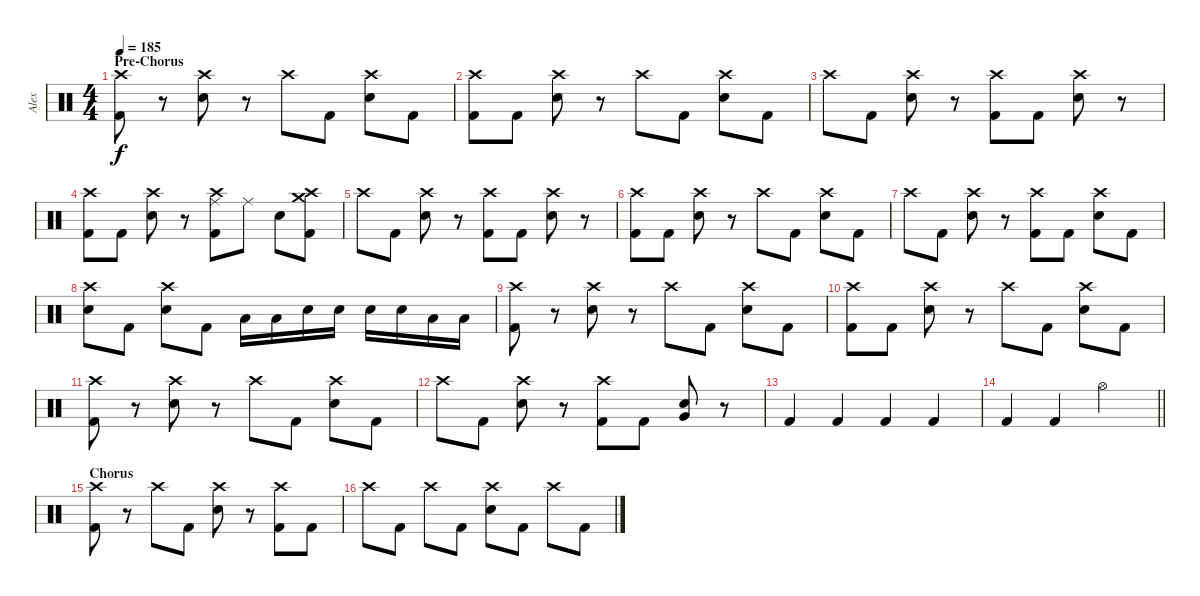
\track ("Alex" "Alex") {instrument percussion}
\staff {score}
\articulation defaults
\ts (4 4)
\section ("" "Pre-Chorus")
\tempo 185
\clef neutral
\ks c
("Crash high (hit)" "Kick (hit) 2").8{dy f} r.8 ("Crash high (hit)" "Electric Snare (hit)").8 r.8 "Crash high (hit)".8 "Kick (hit) 2".8 ("Crash high (hit)" "Electric Snare (hit)").8 "Kick (hit) 2".8 |
("Crash high (hit)" "Kick (hit) 2").8 "Kick (hit) 2".8 ("Crash high (hit)" "Electric Snare (hit)").8 r.8 "Crash high (hit)".8 "Kick (hit) 2".8 ("Crash high (hit)" "Electric Snare (hit)").8 "Kick (hit) 2".8 |
"Crash high (hit)".8 "Kick (hit) 2".8 ("Crash high (hit)" "Electric Snare (hit)").8 r.8 ("Crash high (hit)" "Kick (hit) 2").8 "Kick (hit) 2".8 ("Crash high (hit)" "Electric Snare (hit)").8 r.8 |
("Crash high (hit)" "Kick (hit) 2").8 "Kick (hit) 2".8 ("Crash high (hit)" "Electric Snare (hit)").8 r.8 ("Crash high (hit)" "Ride (middle)" "Kick (hit) 2").8 "Ride (middle)".8 "Electric Snare (hit)".8 ("Crash medium (hit)" "Crash high (hit)" "Kick (hit) 2").8 |
"Crash high (hit)".8 "Kick (hit) 2".8 ("Crash high (hit)" "Electric Snare (hit)").8 r.8 ("Crash high (hit)" "Kick (hit) 2").8 "Kick (hit) 2".8 ("Crash high (hit)" "Electric Snare (hit)").8 r.8 |
("Crash high (hit)" "Kick (hit) 2").8 "Kick (hit) 2".8 ("Crash high (hit)" "Electric Snare (hit)").8 r.8 "Crash high (hit)".8 "Kick (hit) 2".8 ("Crash high (hit)" "Electric Snare (hit)").8 "Kick (hit) 2".8 |
"Crash high (hit)".8 "Kick (hit) 2".8 ("Crash high (hit)" "Electric Snare (hit)").8 r.8 ("Crash high (hit)" "Kick (hit) 2").8 "Kick (hit) 2".8 ("Crash high (hit)" "Electric Snare (hit)").8 "Kick (hit) 2".8 |
("Crash high (hit)" "Electric Snare (hit)").8 "Kick (hit) 2".8 ("Crash high (hit)" "Electric Snare (hit)").8 "Kick (hit) 2".8 "Low Tom (hit)".16 "Low Tom (hit)".16 "Electric Snare (hit)".16 "Electric Snare (hit)".16 "Electric Snare (hit)".16 "Electric Snare (hit)".16 "Low Tom (hit)".16 "Low Tom (hit)".16 |
("Crash high (hit)" "Kick (hit) 2").8 r.8 ("Crash high (hit)" "Electric Snare (hit)").8 r.8 "Crash high (hit)".8 "Kick (hit) 2".8 ("Crash high (hit)" "Electric Snare (hit)").8 "Kick (hit) 2".8 |
("Crash high (hit)" "Kick (hit) 2").8 "Kick (hit) 2".8 ("Crash high (hit)" "Electric Snare (hit)").8 r.8 "Crash high (hit)".8 "Kick (hit) 2".8 ("Crash high (hit)" "Electric Snare (hit)").8 "Kick (hit) 2".8 |
("Crash high (hit)" "Kick (hit) 2").8 r.8 ("Crash high (hit)" "Electric Snare (hit)").8 r.8 "Crash high (hit)".8 "Kick (hit) 2".8 ("Crash high (hit)" "Electric Snare (hit)").8 "Kick (hit) 2".8 |
"Crash high (hit)".8 "Kick (hit) 2".8 ("Crash high (hit)" "Electric Snare (hit)").8 r.8 ("Crash high (hit)" "Kick (hit) 2").8 "Kick (hit) 2".8 ("Very Low Tom (hit)" "Electric Snare (hit)").8 r.8 |
"Kick (hit) 2".4 "Kick (hit) 2".4 "Kick (hit) 2".4 "Kick (hit) 2".4 |
\barLineRight lightlight "Kick (hit) 2".4 "Kick (hit) 2".4 "Hi-Hat (open)".2
|
\section ("" "Chorus")
("Crash high (hit)" "Kick (hit) 2").8 r.8 "Crash high (hit)".8 "Kick (hit) 2".8 ("Crash high (hit)" "Electric Snare (hit)").8 r.8 ("Crash high (hit)" "Kick (hit) 2").8 "Kick (hit) 2".8 |
"Crash high (hit)".8 "Kick (hit) 2".8 "Crash high (hit)".8 "Kick (hit) 2".8 ("Crash high (hit)" "Electric Snare (hit)").8 "Kick (hit) 2".8 "Crash high (hit)".8 "Kick (hit) 2".8
